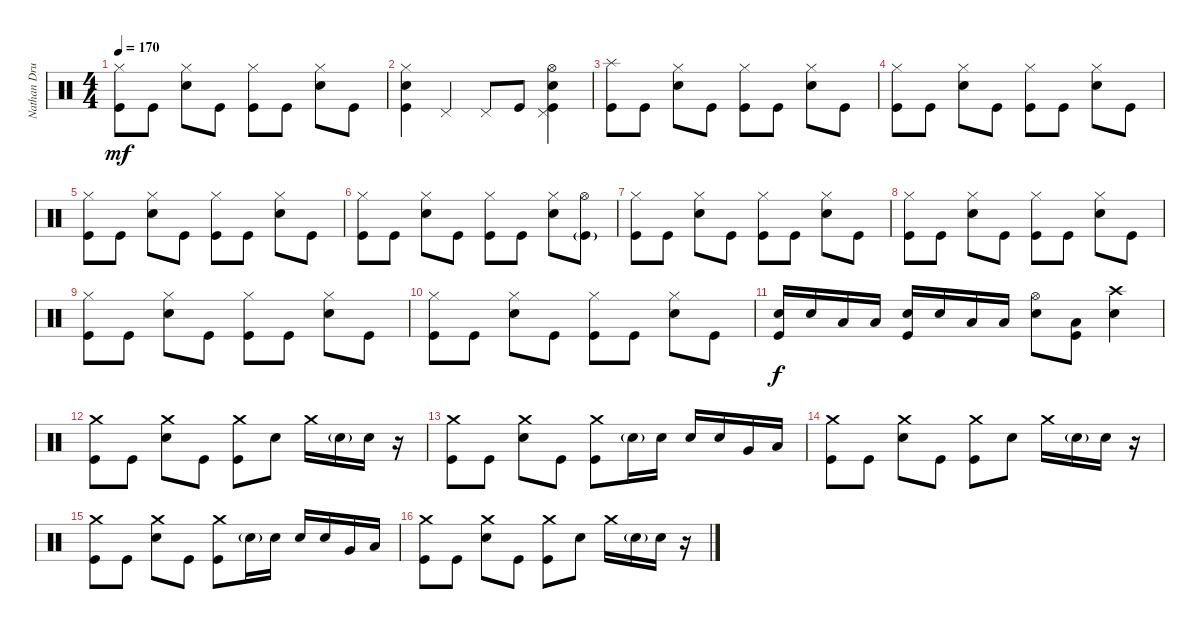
\track ("Nathan Drum Programming" "Nathan Dru") {instrument percussion}
\staff {score}
\articulation defaults
\ts (4 4)
\tempo 170
\clef neutral
\ks c
("Hi-Hat (closed)" "Kick (hit)").8{dy mf} "Kick (hit)".8 ("Hi-Hat (closed)" "Snare (hit) 2").8 "Kick (hit)".8 ("Hi-Hat (closed)" "Kick (hit)").8 "Kick (hit)".8 ("Hi-Hat (closed)" "Snare (hit) 2").8 "Kick (hit)".8 |
("Hi-Hat (closed)" "Kick (hit)" "Snare (hit) 2").4 "Pedal Hi-Hat (hit)".4 "Pedal Hi-Hat (hit)".8 "Kick (hit)".8 ("Pedal Hi-Hat (hit)" "Snare (hit) 2" "Kick (hit)" "Hi-Hat (open)").4 |
("Kick (hit)" "Splash (hit)").8 "Kick (hit)".8 ("Hi-Hat (closed)" "Snare (hit) 2").8 "Kick (hit)".8 ("Hi-Hat (closed)" "Kick (hit)").8 "Kick (hit)".8 ("Hi-Hat (closed)" "Snare (hit) 2").8 "Kick (hit)".8 |
("Hi-Hat (closed)" "Kick (hit)").8 "Kick (hit)".8 ("Hi-Hat (closed)" "Snare (hit) 2").8 "Kick (hit)".8 ("Hi-Hat (closed)" "Kick (hit)").8 "Kick (hit)".8 ("Hi-Hat (closed)" "Snare (hit) 2").8 "Kick (hit)".8 |
("Hi-Hat (closed)" "Kick (hit)").8 "Kick (hit)".8 ("Hi-Hat (closed)" "Snare (hit) 2").8 "Kick (hit)".8 ("Hi-Hat (closed)" "Kick (hit)").8 "Kick (hit)".8 ("Hi-Hat (closed)" "Snare (hit) 2").8 "Kick (hit)".8 |
("Hi-Hat (closed)" "Kick (hit)").8 "Kick (hit)".8 ("Hi-Hat (closed)" "Snare (hit) 2").8 "Kick (hit)".8 ("Hi-Hat (closed)" "Kick (hit)").8 "Kick (hit)".8 ("Hi-Hat (closed)" "Snare (hit) 2").8 ("Hi-Hat (open)" "Kick (hit)"{g}).8 |
("Hi-Hat (closed)" "Kick (hit)").8 "Kick (hit)".8 ("Hi-Hat (closed)" "Snare (hit) 2").8 "Kick (hit)".8 ("Hi-Hat (closed)" "Kick (hit)").8 "Kick (hit)".8 ("Hi-Hat (closed)" "Snare (hit) 2").8 "Kick (hit)".8 |
("Hi-Hat (closed)" "Kick (hit)").8 "Kick (hit)".8 ("Hi-Hat (closed)" "Snare (hit) 2").8 "Kick (hit)".8 ("Hi-Hat (closed)" "Kick (hit)").8 "Kick (hit)".8 ("Hi-Hat (closed)" "Snare (hit) 2").8 "Kick (hit)".8 |
("Hi-Hat (closed)" "Kick (hit)").8 "Kick (hit)".8 ("Hi-Hat (closed)" "Snare (hit) 2").8 "Kick (hit)".8 ("Hi-Hat (closed)" "Kick (hit)").8 "Kick (hit)".8 ("Hi-Hat (closed)" "Snare (hit) 2").8 "Kick (hit)".8 |
("Hi-Hat (closed)" "Kick (hit)").8 "Kick (hit)".8 ("Hi-Hat (closed)" "Snare (hit) 2").8 "Kick (hit)".8 ("Hi-Hat (closed)" "Kick (hit)").8 "Kick (hit)".8 ("Hi-Hat (closed)" "Snare (hit) 2").8 "Kick (hit)".8 |
("Snare (hit) 2" "Kick (hit)").16{dy f} "Snare (hit) 2".16 "Low Tom (hit)".16 "Low Floor Tom (hit)".16 ("Snare (hit) 2" "Kick (hit)").16 "Snare (hit) 2".16 "Low Tom (hit)".16 "Low Floor Tom (hit)".16 ("Snare (hit) 2" "Hi-Hat (open)").8 ("Kick (hit)" "Low Floor Tom (hit)").8 ("Snare (hit) 2" "Crash high (hit)").4 |
("Kick (hit)" "Crash medium (hit)").8 "Kick (hit)".8 ("Crash medium (hit)" "Snare (hit) 2").8 "Kick (hit)".8 ("Kick (hit)" "Crash medium (hit)").8 "Snare (hit) 2".8 "Crash medium (hit)".16 "Snare (hit) 2"{g}.16 "Snare (hit) 2".16 r.16 |
("Kick (hit)" "Crash medium (hit)").8 "Kick (hit)".8 ("Crash medium (hit)" "Snare (hit) 2").8 "Kick (hit)".8 ("Kick (hit)" "Crash medium (hit)").8 "Snare (hit) 2"{g}.16 "Snare (hit) 2".16 "Snare (hit) 2".16 "Snare (hit) 2".16 "Very Low Tom (hit)".16 "Low Floor Tom (hit)".16 |
("Kick (hit)" "Crash medium (hit)").8 "Kick (hit)".8 ("Crash medium (hit)" "Snare (hit) 2").8 "Kick (hit)".8 ("Kick (hit)" "Crash medium (hit)").8 "Snare (hit) 2".8 "Crash medium (hit)".16 "Snare (hit) 2"{g}.16 "Snare (hit) 2".16 r.16 |
("Kick (hit)" "Crash medium (hit)").8 "Kick (hit)".8 ("Crash medium (hit)" "Snare (hit) 2").8 "Kick (hit)".8 ("Kick (hit)" "Crash medium (hit)").8 "Snare (hit) 2"{g}.16 "Snare (hit) 2".16 "Snare (hit) 2".16 "Snare (hit) 2".16 "Very Low Tom (hit)".16 "Low Floor Tom (hit)".16 |
("Kick (hit)" "Crash medium (hit)").8 "Kick (hit)".8 ("Crash medium (hit)" "Snare (hit) 2").8 "Kick (hit)".8 ("Kick (hit)" "Crash medium (hit)").8 "Snare (hit) 2".8 "Crash medium (hit)".16 "Snare (hit) 2"{g}.16 "Snare (hit) 2".16 r.16
